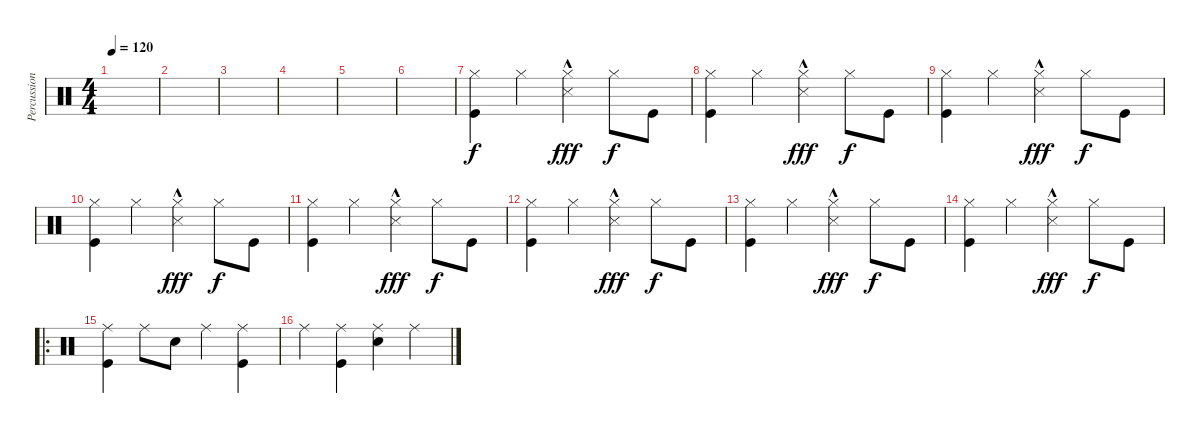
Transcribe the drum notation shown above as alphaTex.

\track ("Percussion" "Percussion") {instrument percussion}
\staff {score}
\articulation defaults
\ts (4 4)
\tempo 120
\clef neutral
\ks c
|
|
|
|
|
|
("Hi-Hat (closed)" "Kick (hit)").4 "Hi-Hat (closed)".4 ("Hi-Hat (closed)" "Snare (side stick) 3"{hac}).4{dy fff} "Hi-Hat (closed)".8{dy f} "Kick (hit)".8 |
("Hi-Hat (closed)" "Kick (hit)").4 "Hi-Hat (closed)".4 ("Hi-Hat (closed)" "Snare (side stick) 3"{hac}).4{dy fff} "Hi-Hat (closed)".8{dy f} "Kick (hit)".8 |
("Hi-Hat (closed)" "Kick (hit)").4 "Hi-Hat (closed)".4 ("Hi-Hat (closed)" "Snare (side stick) 3"{hac}).4{dy fff} "Hi-Hat (closed)".8{dy f} "Kick (hit)".8 |
("Hi-Hat (closed)" "Kick (hit)").4 "Hi-Hat (closed)".4 ("Hi-Hat (closed)" "Snare (side stick) 3"{hac}).4{dy fff} "Hi-Hat (closed)".8{dy f} "Kick (hit)".8 |
("Hi-Hat (closed)" "Kick (hit)").4 "Hi-Hat (closed)".4 ("Hi-Hat (closed)" "Snare (side stick) 3"{hac}).4{dy fff} "Hi-Hat (closed)".8{dy f} "Kick (hit)".8 |
("Hi-Hat (closed)" "Kick (hit)").4 "Hi-Hat (closed)".4 ("Hi-Hat (closed)" "Snare (side stick) 3"{hac}).4{dy fff} "Hi-Hat (closed)".8{dy f} "Kick (hit)".8 |
("Hi-Hat (closed)" "Kick (hit)").4 "Hi-Hat (closed)".4 ("Hi-Hat (closed)" "Snare (side stick) 3"{hac}).4{dy fff} "Hi-Hat (closed)".8{dy f} "Kick (hit)".8 |
("Hi-Hat (closed)" "Kick (hit)").4 "Hi-Hat (closed)".4 ("Hi-Hat (closed)" "Snare (side stick) 3"{hac}).4{dy fff} "Hi-Hat (closed)".8{dy f} "Kick (hit)".8 |
\ro
("Ride (middle)" "Kick (hit)").4 "Ride (middle)".8 "Snare (hit) 2".8 "Ride (middle)".4 ("Ride (middle)" "Kick (hit)").4 |
"Ride (middle)".4 ("Ride (middle)" "Kick (hit)").4 ("Ride (middle)" "Snare (hit) 2").4 "Ride (middle)".4
